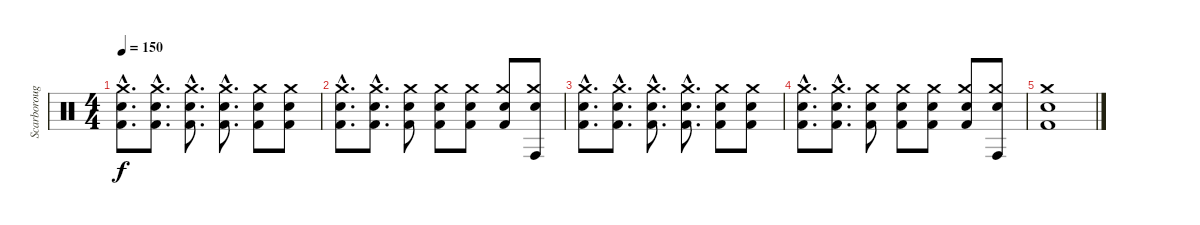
\track ("Scarborough" "Scarboroug") {instrument percussion}
\staff {score}
\articulation defaults
\ts (4 4)
\tempo 150
\clef neutral
\ks c
("Crash medium (hit)"{hac} "Snare (hit) 2"{hac} "Kick (hit) 2"{hac}).8{d dy f} ("Crash medium (hit)"{hac} "Snare (hit) 2"{hac} "Kick (hit) 2"{hac}).8{d} ("Crash medium (hit)"{hac} "Snare (hit) 2"{hac} "Kick (hit) 2"{hac}).8{d} ("Crash medium (hit)"{hac} "Snare (hit) 2"{hac} "Kick (hit) 2"{hac}).8{d} ("Crash medium (hit)" "Snare (hit) 2" "Kick (hit) 2").8 ("Crash medium (hit)" "Snare (hit) 2" "Kick (hit) 2").8 |
("Crash medium (hit)"{hac} "Snare (hit) 2"{hac} "Kick (hit) 2"{hac}).8{d} ("Crash medium (hit)"{hac} "Snare (hit) 2"{hac} "Kick (hit) 2"{hac}).8{d} ("Crash medium (hit)" "Snare (hit) 2" "Kick (hit) 2").8 ("Crash medium (hit)" "Snare (hit) 2" "Kick (hit) 2").8 ("Crash medium (hit)" "Snare (hit) 2" "Kick (hit) 2").8 ("Crash medium (hit)" "Snare (hit) 2" "Kick (hit) 2").8 ("Crash medium (hit)" "Snare (hit) 2" "Conga high (hit)").8 |
("Crash medium (hit)"{hac} "Snare (hit) 2"{hac} "Kick (hit) 2"{hac}).8{d} ("Crash medium (hit)"{hac} "Snare (hit) 2"{hac} "Kick (hit) 2"{hac}).8{d} ("Crash medium (hit)"{hac} "Snare (hit) 2"{hac} "Kick (hit) 2"{hac}).8{d} ("Crash medium (hit)"{hac} "Snare (hit) 2"{hac} "Kick (hit) 2"{hac}).8{d} ("Crash medium (hit)" "Snare (hit) 2" "Kick (hit) 2").8 ("Crash medium (hit)" "Snare (hit) 2" "Kick (hit) 2").8 |
("Crash medium (hit)"{hac} "Snare (hit) 2"{hac} "Kick (hit) 2"{hac}).8{d} ("Crash medium (hit)"{hac} "Snare (hit) 2"{hac} "Kick (hit) 2"{hac}).8{d} ("Crash medium (hit)" "Snare (hit) 2" "Kick (hit) 2").8 ("Crash medium (hit)" "Snare (hit) 2" "Kick (hit) 2").8 ("Crash medium (hit)" "Snare (hit) 2" "Kick (hit) 2").8 ("Crash medium (hit)" "Snare (hit) 2" "Kick (hit) 2").8 ("Crash medium (hit)" "Snare (hit) 2" "Conga high (hit)").8 |
("Crash medium (hit)" "Kick (hit) 2" "Snare (hit) 2").1
